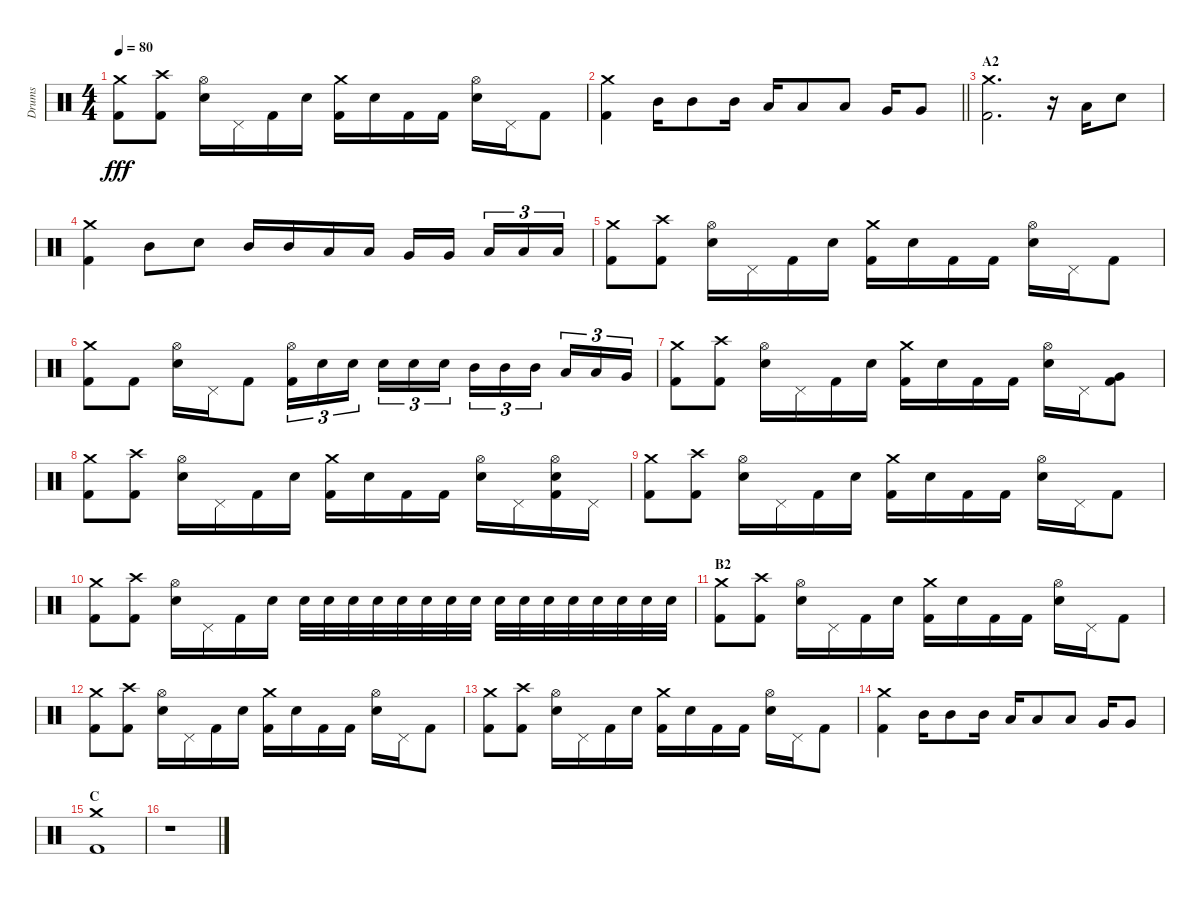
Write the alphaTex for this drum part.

\track ("Drums" "Drums") {instrument percussion}
\staff {score}
\articulation defaults
\ts (4 4)
\tempo 80
\clef neutral
\ks c
("Crash medium (hit)" "Kick (hit) 2").8{dy fff} ("Crash high (hit)" "Kick (hit) 2").8 ("Hi-Hat (open)" "Snare (hit) 2").16 "Pedal Hi-Hat (hit)".16 "Kick (hit) 2".16 "Snare (hit) 2".16 ("Crash medium (hit)" "Kick (hit) 2").16 "Snare (hit) 2".16 "Kick (hit) 2".16 "Kick (hit) 2".16 ("Hi-Hat (open)" "Snare (hit) 2").16 "Pedal Hi-Hat (hit)".16 "Kick (hit) 2".8 |
\barLineRight lightlight
("Crash medium (hit)" "Kick (hit) 2").4 "Mid Tom (hit)".16 "Mid Tom (hit)".8 "Mid Tom (hit)".16 "Low Tom (hit)".16 "Low Tom (hit)".8 "Low Tom (hit)".8 "Very Low Tom (hit)".16 "Very Low Tom (hit)".8 |
\section ("" "A2")
("Crash medium (hit)" "Kick (hit) 2").2{d} r.16 "Low Tom (hit)".16 "Snare (hit) 2".8 |
("Crash medium (hit)" "Kick (hit) 2").4 "Mid Tom (hit)".8 "Snare (hit) 2".8 "Mid Tom (hit)".16 "Mid Tom (hit)".16 "Low Tom (hit)".16 "Low Tom (hit)".16 "Very Low Tom (hit)".16 "Very Low Tom (hit)".16{beam splitsecondary} "Low Floor Tom (hit)".16{tu (3 2)} "Low Floor Tom (hit)".16{tu (3 2)} "Low Floor Tom (hit)".16{tu (3 2)} |
("Crash medium (hit)" "Kick (hit) 2").8 ("Crash high (hit)" "Kick (hit) 2").8 ("Hi-Hat (open)" "Snare (hit) 2").16 "Pedal Hi-Hat (hit)".16 "Kick (hit) 2".16 "Snare (hit) 2".16 ("Crash medium (hit)" "Kick (hit) 2").16 "Snare (hit) 2".16 "Kick (hit) 2".16 "Kick (hit) 2".16 ("Hi-Hat (open)" "Snare (hit) 2").16 "Pedal Hi-Hat (hit)".16 "Kick (hit) 2".8 |
("Crash medium (hit)" "Kick (hit) 2").8 "Kick (hit) 2".8 ("Hi-Hat (open)" "Snare (hit) 2").16 "Pedal Hi-Hat (hit)".16 "Kick (hit) 2".8 ("Hi-Hat (open)" "Kick (hit) 2").16{tu (3 2)} "Snare (hit) 2".16{tu (3 2)} "Snare (hit) 2".16{tu (3 2) beam splitsecondary} "Snare (hit) 2".16{tu (3 2)} "Snare (hit) 2".16{tu (3 2)} "Snare (hit) 2".16{tu (3 2)} "Mid Tom (hit)".16{tu (3 2)} "Mid Tom (hit)".16{tu (3 2)} "Mid Tom (hit)".16{tu (3 2) beam splitsecondary} "Low Tom (hit)".16{tu (3 2)} "Low Tom (hit)".16{tu (3 2)} "Very Low Tom (hit)".16{tu (3 2)} |
("Crash medium (hit)" "Kick (hit) 2").8 ("Crash high (hit)" "Kick (hit) 2").8 ("Hi-Hat (open)" "Snare (hit) 2").16 "Pedal Hi-Hat (hit)".16 "Kick (hit) 2".16 "Snare (hit) 2".16 ("Crash medium (hit)" "Kick (hit) 2").16 "Snare (hit) 2".16 "Kick (hit) 2".16 "Kick (hit) 2".16 ("Hi-Hat (open)" "Snare (hit) 2").16 "Pedal Hi-Hat (hit)".16 ("Very Low Tom (hit)" "Kick (hit) 2").8 |
("Crash medium (hit)" "Kick (hit) 2").8 ("Crash high (hit)" "Kick (hit) 2").8 ("Hi-Hat (open)" "Snare (hit) 2").16 "Pedal Hi-Hat (hit)".16 "Kick (hit) 2".16 "Snare (hit) 2".16 ("Crash medium (hit)" "Kick (hit) 2").16 "Snare (hit) 2".16 "Kick (hit) 2".16 "Kick (hit) 2".16 ("Hi-Hat (open)" "Snare (hit) 2").16 "Pedal Hi-Hat (hit)".16 ("Hi-Hat (open)" "Snare (hit) 2" "Kick (hit) 2").16 "Pedal Hi-Hat (hit)".16 |
("Crash medium (hit)" "Kick (hit) 2").8 ("Crash high (hit)" "Kick (hit) 2").8 ("Hi-Hat (open)" "Snare (hit) 2").16 "Pedal Hi-Hat (hit)".16 "Kick (hit) 2".16 "Snare (hit) 2".16 ("Crash medium (hit)" "Kick (hit) 2").16 "Snare (hit) 2".16 "Kick (hit) 2".16 "Kick (hit) 2".16 ("Hi-Hat (open)" "Snare (hit) 2").16 "Pedal Hi-Hat (hit)".16 "Kick (hit) 2".8 |
("Crash medium (hit)" "Kick (hit) 2").8 ("Crash high (hit)" "Kick (hit) 2").8 ("Hi-Hat (open)" "Snare (hit) 2").16 "Pedal Hi-Hat (hit)".16 "Kick (hit) 2".16 "Snare (hit) 2".16 "Snare (hit) 2".32 "Snare (hit) 2".32 "Snare (hit) 2".32 "Snare (hit) 2".32 "Snare (hit) 2".32 "Snare (hit) 2".32 "Snare (hit) 2".32 "Snare (hit) 2".32 "Snare (hit) 2".32 "Snare (hit) 2".32 "Snare (hit) 2".32 "Snare (hit) 2".32 "Snare (hit) 2".32 "Snare (hit) 2".32 "Snare (hit) 2".32 "Snare (hit) 2".32 |
\section ("" "B2")
("Crash medium (hit)" "Kick (hit) 2").8 ("Crash high (hit)" "Kick (hit) 2").8 ("Hi-Hat (open)" "Snare (hit) 2").16 "Pedal Hi-Hat (hit)".16 "Kick (hit) 2".16 "Snare (hit) 2".16 ("Crash medium (hit)" "Kick (hit) 2").16 "Snare (hit) 2".16 "Kick (hit) 2".16 "Kick (hit) 2".16 ("Hi-Hat (open)" "Snare (hit) 2").16 "Pedal Hi-Hat (hit)".16 "Kick (hit) 2".8 |
("Crash medium (hit)" "Kick (hit) 2").8 ("Crash high (hit)" "Kick (hit) 2").8 ("Hi-Hat (open)" "Snare (hit) 2").16 "Pedal Hi-Hat (hit)".16 "Kick (hit) 2".16 "Snare (hit) 2".16 ("Crash medium (hit)" "Kick (hit) 2").16 "Snare (hit) 2".16 "Kick (hit) 2".16 "Kick (hit) 2".16 ("Hi-Hat (open)" "Snare (hit) 2").16 "Pedal Hi-Hat (hit)".16 "Kick (hit) 2".8 |
("Crash medium (hit)" "Kick (hit) 2").8 ("Crash high (hit)" "Kick (hit) 2").8 ("Hi-Hat (open)" "Snare (hit) 2").16 "Pedal Hi-Hat (hit)".16 "Kick (hit) 2".16 "Snare (hit) 2".16 ("Crash medium (hit)" "Kick (hit) 2").16 "Snare (hit) 2".16 "Kick (hit) 2".16 "Kick (hit) 2".16 ("Hi-Hat (open)" "Snare (hit) 2").16 "Pedal Hi-Hat (hit)".16 "Kick (hit) 2".8 |
("Crash medium (hit)" "Kick (hit) 2").4 "Mid Tom (hit)".16 "Mid Tom (hit)".8 "Mid Tom (hit)".16 "Low Tom (hit)".16 "Low Tom (hit)".8 "Low Tom (hit)".8 "Very Low Tom (hit)".16 "Very Low Tom (hit)".8 |
\section ("" "C")
("Crash medium (hit)" "Kick (hit) 2").1 |
r.1
